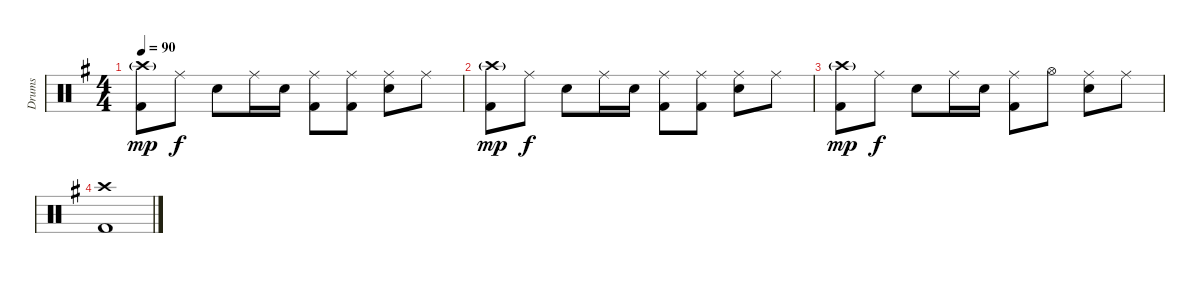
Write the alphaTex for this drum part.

\track ("Drums" "Drums") {instrument percussion}
\staff {score}
\articulation defaults
\ts (4 4)
\tempo 90
\clef neutral
\ks g
("Crash high (hit)"{g} "Kick (hit) 2").8{dy mp} "Ride (middle)".8{dy f} "Snare (hit) 2".8 "Ride (middle)".16 "Snare (hit) 2".16 ("Ride (middle)" "Kick (hit) 2").8 ("Ride (middle)" "Kick (hit) 2").8 ("Ride (middle)" "Snare (hit) 2").8 "Ride (middle)".8 |
("Crash high (hit)"{g} "Kick (hit) 2").8{dy mp} "Ride (middle)".8{dy f} "Snare (hit) 2".8 "Ride (middle)".16 "Snare (hit) 2".16 ("Ride (middle)" "Kick (hit) 2").8 ("Ride (middle)" "Kick (hit) 2").8 ("Ride (middle)" "Snare (hit) 2").8 "Ride (middle)".8 |
("Crash high (hit)"{g} "Kick (hit) 2").8{dy mp} "Ride (middle)".8{dy f} "Snare (hit) 2".8 "Ride (middle)".16 "Snare (hit) 2".16 ("Ride (middle)" "Kick (hit) 2").8 "Hi-Hat (open)".8 ("Ride (middle)" "Snare (hit) 2").8 "Ride (middle)".8 |
("Crash high (hit)" "Kick (hit) 2").1
